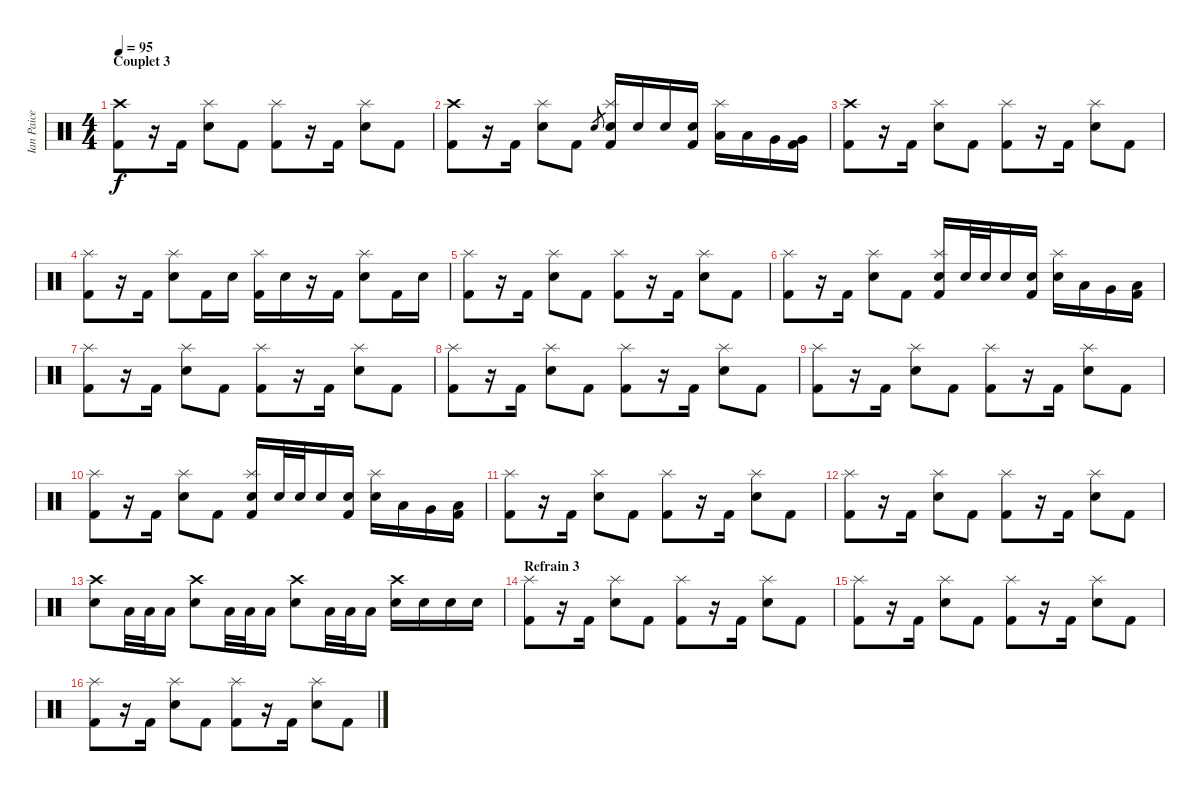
\track ("Ian Paice" "Ian Paice") {instrument percussion}
\staff {score}
\articulation defaults
\ts (4 4)
\section ("" "Couplet 3")
\tempo 95
\clef neutral
\ks c
("Crash high (hit)" "Kick (hit) 2").8{dy f} r.16 "Kick (hit) 2".16 ("Splash (hit)" "Snare (hit) 2").8 "Kick (hit) 2".8 ("Splash (hit)" "Kick (hit) 2").8 r.16 "Kick (hit) 2".16 ("Splash (hit)" "Snare (hit) 2").8 "Kick (hit) 2".8 |
("Crash high (hit)" "Kick (hit) 2").8 r.16 "Kick (hit) 2".16 ("Splash (hit)" "Snare (hit) 2").8 "Kick (hit) 2".8 "Snare (hit) 2".8{gr} ("Splash (hit)" "Snare (hit) 2" "Kick (hit) 2").16 "Snare (hit) 2".16 "Snare (hit) 2".16 ("Snare (hit) 2" "Kick (hit) 2").16 ("Splash (hit)" "Low Floor Tom (hit)").16 "Low Floor Tom (hit)".16 "Very Low Tom (hit)".16 ("Very Low Tom (hit)" "Kick (hit) 2").16 |
("Crash high (hit)" "Kick (hit) 2").8 r.16 "Kick (hit) 2".16 ("Splash (hit)" "Snare (hit) 2").8 "Kick (hit) 2".8 ("Splash (hit)" "Kick (hit) 2").8 r.16 "Kick (hit) 2".16 ("Splash (hit)" "Snare (hit) 2").8 "Kick (hit) 2".8 |
("Splash (hit)" "Kick (hit) 2").8 r.16 "Kick (hit) 2".16 ("Splash (hit)" "Snare (hit) 2").8 "Kick (hit) 2"{x}.16 "Snare (hit) 2".16 ("Splash (hit)" "Kick (hit) 2").16 "Snare (hit) 2".16 r.16 "Kick (hit) 2".16 ("Splash (hit)" "Snare (hit) 2").8 "Kick (hit) 2".16 "Snare (hit) 2".16 |
("Splash (hit)" "Kick (hit) 2").8 r.16 "Kick (hit) 2".16 ("Splash (hit)" "Snare (hit) 2").8 "Kick (hit) 2".8 ("Splash (hit)" "Kick (hit) 2").8 r.16 "Kick (hit) 2".16 ("Splash (hit)" "Snare (hit) 2").8 "Kick (hit) 2".8 |
("Splash (hit)" "Kick (hit) 2").8 r.16 "Kick (hit) 2".16 ("Splash (hit)" "Snare (hit) 2").8 "Kick (hit) 2".8 ("Splash (hit)" "Snare (hit) 2" "Kick (hit) 2").16 "Snare (hit) 2".32 "Snare (hit) 2".32 "Snare (hit) 2".16 ("Snare (hit) 2" "Kick (hit) 2").16 ("Splash (hit)" "Snare (hit) 2").16 "Low Floor Tom (hit)".16 "Very Low Tom (hit)".16 ("Low Tom (hit)" "Kick (hit) 2").16 |
("Splash (hit)" "Kick (hit) 2").8 r.16 "Kick (hit) 2".16 ("Splash (hit)" "Snare (hit) 2").8 "Kick (hit) 2".8 ("Splash (hit)" "Kick (hit) 2").8 r.16 "Kick (hit) 2".16 ("Splash (hit)" "Snare (hit) 2").8 "Kick (hit) 2".8 |
("Splash (hit)" "Kick (hit) 2").8 r.16 "Kick (hit) 2".16 ("Splash (hit)" "Snare (hit) 2").8 "Kick (hit) 2".8 ("Splash (hit)" "Kick (hit) 2").8 r.16 "Kick (hit) 2".16 ("Splash (hit)" "Snare (hit) 2").8 "Kick (hit) 2".8 |
("Splash (hit)" "Kick (hit) 2").8 r.16 "Kick (hit) 2".16 ("Splash (hit)" "Snare (hit) 2").8 "Kick (hit) 2".8 ("Splash (hit)" "Kick (hit) 2").8 r.16 "Kick (hit) 2".16 ("Splash (hit)" "Snare (hit) 2").8 "Kick (hit) 2".8 |
("Splash (hit)" "Kick (hit) 2").8 r.16 "Kick (hit) 2".16 ("Splash (hit)" "Snare (hit) 2").8 "Kick (hit) 2".8 ("Splash (hit)" "Snare (hit) 2" "Kick (hit) 2").16 "Snare (hit) 2".32 "Snare (hit) 2".32 "Snare (hit) 2".16 ("Snare (hit) 2" "Kick (hit) 2").16 ("Splash (hit)" "Snare (hit) 2").16 "Low Floor Tom (hit)".16 "Very Low Tom (hit)".16 ("Low Tom (hit)" "Kick (hit) 2").16 |
("Splash (hit)" "Kick (hit) 2").8 r.16 "Kick (hit) 2".16 ("Splash (hit)" "Snare (hit) 2").8 "Kick (hit) 2".8 ("Splash (hit)" "Kick (hit) 2").8 r.16 "Kick (hit) 2".16 ("Splash (hit)" "Snare (hit) 2").8 "Kick (hit) 2".8 |
("Splash (hit)" "Kick (hit) 2").8 r.16 "Kick (hit) 2".16 ("Splash (hit)" "Snare (hit) 2").8 "Kick (hit) 2".8 ("Splash (hit)" "Kick (hit) 2").8 r.16 "Kick (hit) 2".16 ("Splash (hit)" "Snare (hit) 2").8 "Kick (hit) 2".8 |
("Crash high (hit)" "Snare (hit) 2").8 "Low Floor Tom (hit)".32 "Low Floor Tom (hit)".32 "Low Floor Tom (hit)".16 ("Crash high (hit)" "Snare (hit) 2").8 "Low Floor Tom (hit)".32 "Low Floor Tom (hit)".32 "Low Floor Tom (hit)".16 ("Crash high (hit)" "Snare (hit) 2").8 "Low Floor Tom (hit)".32 "Low Floor Tom (hit)".32 "Low Floor Tom (hit)".16 ("Crash high (hit)" "Snare (hit) 2").16 "Snare (hit) 2".16 "Snare (hit) 2".16 "Snare (hit) 2".16 |
\section ("" "Refrain 3")
("Splash (hit)" "Kick (hit) 2").8 r.16 "Kick (hit) 2".16 ("Splash (hit)" "Snare (hit) 2").8 "Kick (hit) 2".8 ("Splash (hit)" "Kick (hit) 2").8 r.16 "Kick (hit) 2".16 ("Splash (hit)" "Snare (hit) 2").8 "Kick (hit) 2".8 |
("Splash (hit)" "Kick (hit) 2").8 r.16 "Kick (hit) 2".16 ("Splash (hit)" "Snare (hit) 2").8 "Kick (hit) 2".8 ("Splash (hit)" "Kick (hit) 2").8 r.16 "Kick (hit) 2".16 ("Splash (hit)" "Snare (hit) 2").8 "Kick (hit) 2".8 |
("Splash (hit)" "Kick (hit) 2").8 r.16 "Kick (hit) 2".16 ("Splash (hit)" "Snare (hit) 2").8 "Kick (hit) 2".8 ("Splash (hit)" "Kick (hit) 2").8 r.16 "Kick (hit) 2".16 ("Splash (hit)" "Snare (hit) 2").8 "Kick (hit) 2".8
